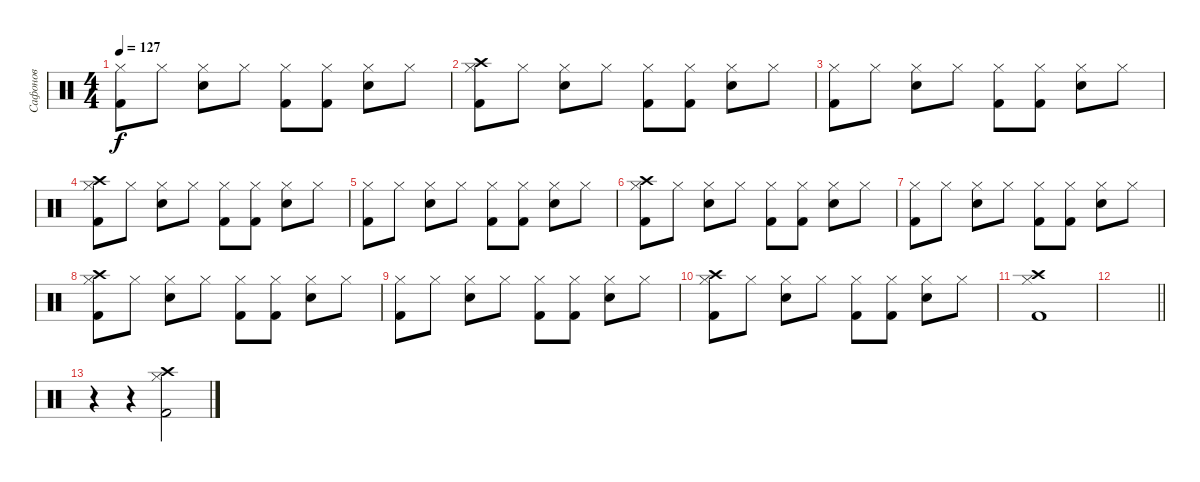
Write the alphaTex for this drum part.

\track ("Сафонов" "Сафонов") {instrument percussion}
\staff {score}
\articulation defaults
\ts (4 4)
\tempo 127
\clef neutral
\ks c
("Hi-Hat (closed)" "Kick (hit) 2").8{dy f} "Hi-Hat (closed)".8 ("Hi-Hat (closed)" "Electric Snare (hit)").8 "Hi-Hat (closed)".8 ("Hi-Hat (closed)" "Kick (hit) 2").8 ("Hi-Hat (closed)" "Kick (hit) 2").8 ("Hi-Hat (closed)" "Electric Snare (hit)").8 "Hi-Hat (closed)".8 |
("Crash high (hit)" "Hi-Hat (closed)" "Kick (hit) 2").8 "Hi-Hat (closed)".8 ("Hi-Hat (closed)" "Electric Snare (hit)").8 "Hi-Hat (closed)".8 ("Hi-Hat (closed)" "Kick (hit) 2").8 ("Hi-Hat (closed)" "Kick (hit) 2").8 ("Hi-Hat (closed)" "Electric Snare (hit)").8 "Hi-Hat (closed)".8 |
("Hi-Hat (closed)" "Kick (hit) 2").8 "Hi-Hat (closed)".8 ("Hi-Hat (closed)" "Electric Snare (hit)").8 "Hi-Hat (closed)".8 ("Hi-Hat (closed)" "Kick (hit) 2").8 ("Hi-Hat (closed)" "Kick (hit) 2").8 ("Hi-Hat (closed)" "Electric Snare (hit)").8 "Hi-Hat (closed)".8 |
("Crash high (hit)" "Hi-Hat (closed)" "Kick (hit) 2").8 "Hi-Hat (closed)".8 ("Hi-Hat (closed)" "Electric Snare (hit)").8 "Hi-Hat (closed)".8 ("Hi-Hat (closed)" "Kick (hit) 2").8 ("Hi-Hat (closed)" "Kick (hit) 2").8 ("Hi-Hat (closed)" "Electric Snare (hit)").8 "Hi-Hat (closed)".8 |
("Hi-Hat (closed)" "Kick (hit) 2").8 "Hi-Hat (closed)".8 ("Hi-Hat (closed)" "Electric Snare (hit)").8 "Hi-Hat (closed)".8 ("Hi-Hat (closed)" "Kick (hit) 2").8 ("Hi-Hat (closed)" "Kick (hit) 2").8 ("Hi-Hat (closed)" "Electric Snare (hit)").8 "Hi-Hat (closed)".8 |
("Crash high (hit)" "Hi-Hat (closed)" "Kick (hit) 2").8 "Hi-Hat (closed)".8 ("Hi-Hat (closed)" "Electric Snare (hit)").8 "Hi-Hat (closed)".8 ("Hi-Hat (closed)" "Kick (hit) 2").8 ("Hi-Hat (closed)" "Kick (hit) 2").8 ("Hi-Hat (closed)" "Electric Snare (hit)").8 "Hi-Hat (closed)".8 |
("Hi-Hat (closed)" "Kick (hit) 2").8 "Hi-Hat (closed)".8 ("Hi-Hat (closed)" "Electric Snare (hit)").8 "Hi-Hat (closed)".8 ("Hi-Hat (closed)" "Kick (hit) 2").8 ("Hi-Hat (closed)" "Kick (hit) 2").8 ("Hi-Hat (closed)" "Electric Snare (hit)").8 "Hi-Hat (closed)".8 |
("Crash high (hit)" "Hi-Hat (closed)" "Kick (hit) 2").8 "Hi-Hat (closed)".8 ("Hi-Hat (closed)" "Electric Snare (hit)").8 "Hi-Hat (closed)".8 ("Hi-Hat (closed)" "Kick (hit) 2").8 ("Hi-Hat (closed)" "Kick (hit) 2").8 ("Hi-Hat (closed)" "Electric Snare (hit)").8 "Hi-Hat (closed)".8 |
("Hi-Hat (closed)" "Kick (hit) 2").8 "Hi-Hat (closed)".8 ("Hi-Hat (closed)" "Electric Snare (hit)").8 "Hi-Hat (closed)".8 ("Hi-Hat (closed)" "Kick (hit) 2").8 ("Hi-Hat (closed)" "Kick (hit) 2").8 ("Hi-Hat (closed)" "Electric Snare (hit)").8 "Hi-Hat (closed)".8 |
("Crash high (hit)" "Hi-Hat (closed)" "Kick (hit) 2").8 "Hi-Hat (closed)".8 ("Hi-Hat (closed)" "Electric Snare (hit)").8 "Hi-Hat (closed)".8 ("Hi-Hat (closed)" "Kick (hit) 2").8 ("Hi-Hat (closed)" "Kick (hit) 2").8 ("Hi-Hat (closed)" "Electric Snare (hit)").8 "Hi-Hat (closed)".8 |
("Crash high (hit)" "Hi-Hat (closed)" "Kick (hit) 2").1 |
\barLineRight lightlight
|
r.4 r.4 ("Crash high (hit)" "Hi-Hat (closed)" "Kick (hit) 2").2
